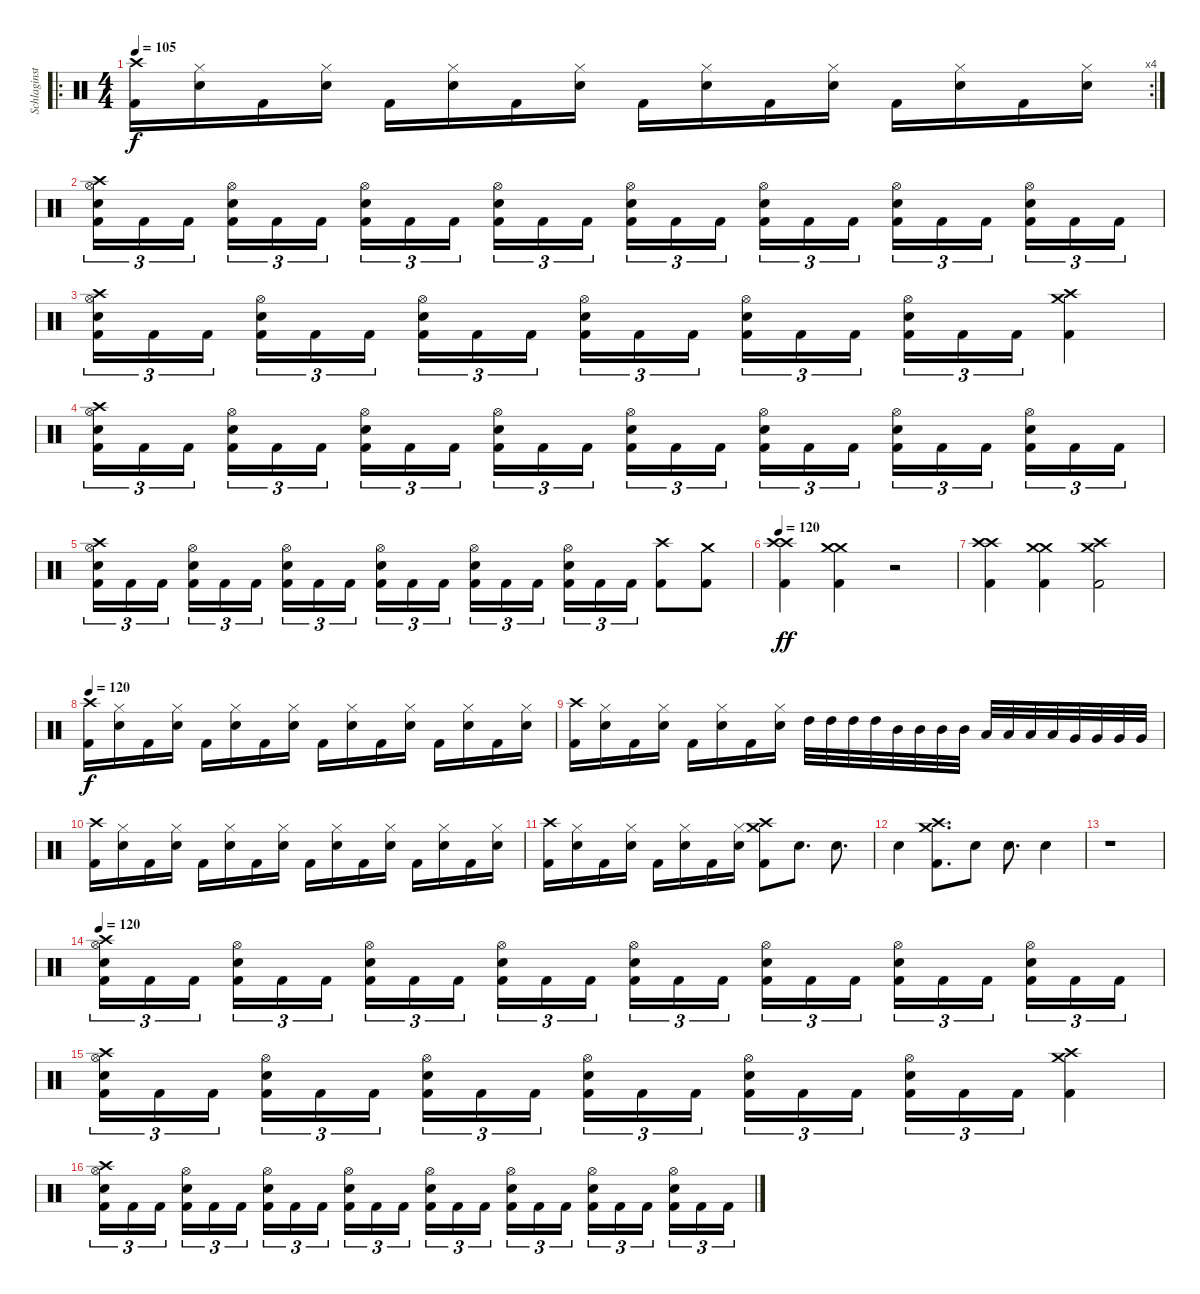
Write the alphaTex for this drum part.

\track ("Schlaginstrumente - Auswahl" "Schlaginst") {instrument percussion}
\staff {score}
\articulation defaults
\ro
\rc 4
\ts (4 4)
\tempo 105
\clef neutral
\ks c
("Crash high (hit)" "Kick (hit) 2").16{dy f} ("Hi-Hat (closed)" "Snare (hit) 2").16 "Kick (hit) 2".16 ("Hi-Hat (closed)" "Snare (hit) 2").16 "Kick (hit) 2".16 ("Hi-Hat (closed)" "Snare (hit) 2").16 "Kick (hit) 2".16 ("Hi-Hat (closed)" "Snare (hit) 2").16 "Kick (hit) 2".16 ("Hi-Hat (closed)" "Snare (hit) 2").16 "Kick (hit) 2".16 ("Hi-Hat (closed)" "Snare (hit) 2").16 "Kick (hit) 2".16 ("Hi-Hat (closed)" "Snare (hit) 2").16 "Kick (hit) 2".16 ("Hi-Hat (closed)" "Snare (hit) 2").16 |
("Crash high (hit)" "Hi-Hat (open)" "Snare (hit) 2" "Kick (hit) 2").16{tu (3 2)} "Kick (hit) 2".16{tu (3 2)} "Kick (hit) 2".16{tu (3 2) beam splitsecondary} ("Hi-Hat (open)" "Snare (hit) 2" "Kick (hit) 2").16{tu (3 2)} "Kick (hit) 2".16{tu (3 2)} "Kick (hit) 2".16{tu (3 2)} ("Hi-Hat (open)" "Snare (hit) 2" "Kick (hit) 2").16{tu (3 2)} "Kick (hit) 2".16{tu (3 2)} "Kick (hit) 2".16{tu (3 2) beam splitsecondary} ("Hi-Hat (open)" "Snare (hit) 2" "Kick (hit) 2").16{tu (3 2)} "Kick (hit) 2".16{tu (3 2)} "Kick (hit) 2".16{tu (3 2)} ("Hi-Hat (open)" "Snare (hit) 2" "Kick (hit) 2").16{tu (3 2)} "Kick (hit) 2".16{tu (3 2)} "Kick (hit) 2".16{tu (3 2) beam splitsecondary} ("Hi-Hat (open)" "Snare (hit) 2" "Kick (hit) 2").16{tu (3 2)} "Kick (hit) 2".16{tu (3 2)} "Kick (hit) 2".16{tu (3 2)} ("Hi-Hat (open)" "Snare (hit) 2" "Kick (hit) 2").16{tu (3 2)} "Kick (hit) 2".16{tu (3 2)} "Kick (hit) 2".16{tu (3 2) beam splitsecondary} ("Hi-Hat (open)" "Snare (hit) 2" "Kick (hit) 2").16{tu (3 2)} "Kick (hit) 2".16{tu (3 2)} "Kick (hit) 2".16{tu (3 2)} |
("Crash high (hit)" "Hi-Hat (open)" "Snare (hit) 2" "Kick (hit) 2").16{tu (3 2)} "Kick (hit) 2".16{tu (3 2)} "Kick (hit) 2".16{tu (3 2) beam splitsecondary} ("Hi-Hat (open)" "Snare (hit) 2" "Kick (hit) 2").16{tu (3 2)} "Kick (hit) 2".16{tu (3 2)} "Kick (hit) 2".16{tu (3 2)} ("Hi-Hat (open)" "Snare (hit) 2" "Kick (hit) 2").16{tu (3 2)} "Kick (hit) 2".16{tu (3 2)} "Kick (hit) 2".16{tu (3 2) beam splitsecondary} ("Hi-Hat (open)" "Snare (hit) 2" "Kick (hit) 2").16{tu (3 2)} "Kick (hit) 2".16{tu (3 2)} "Kick (hit) 2".16{tu (3 2)} ("Hi-Hat (open)" "Snare (hit) 2" "Kick (hit) 2").16{tu (3 2)} "Kick (hit) 2".16{tu (3 2)} "Kick (hit) 2".16{tu (3 2) beam splitsecondary} ("Hi-Hat (open)" "Snare (hit) 2" "Kick (hit) 2").16{tu (3 2)} "Kick (hit) 2".16{tu (3 2)} "Kick (hit) 2".16{tu (3 2)} ("Crash medium (hit)" "Crash high (hit)" "Kick (hit) 2").4 |
("Crash high (hit)" "Hi-Hat (open)" "Snare (hit) 2" "Kick (hit) 2").16{tu (3 2)} "Kick (hit) 2".16{tu (3 2)} "Kick (hit) 2".16{tu (3 2) beam splitsecondary} ("Hi-Hat (open)" "Snare (hit) 2" "Kick (hit) 2").16{tu (3 2)} "Kick (hit) 2".16{tu (3 2)} "Kick (hit) 2".16{tu (3 2)} ("Hi-Hat (open)" "Snare (hit) 2" "Kick (hit) 2").16{tu (3 2)} "Kick (hit) 2".16{tu (3 2)} "Kick (hit) 2".16{tu (3 2) beam splitsecondary} ("Hi-Hat (open)" "Snare (hit) 2" "Kick (hit) 2").16{tu (3 2)} "Kick (hit) 2".16{tu (3 2)} "Kick (hit) 2".16{tu (3 2)} ("Hi-Hat (open)" "Snare (hit) 2" "Kick (hit) 2").16{tu (3 2)} "Kick (hit) 2".16{tu (3 2)} "Kick (hit) 2".16{tu (3 2) beam splitsecondary} ("Hi-Hat (open)" "Snare (hit) 2" "Kick (hit) 2").16{tu (3 2)} "Kick (hit) 2".16{tu (3 2)} "Kick (hit) 2".16{tu (3 2)} ("Hi-Hat (open)" "Snare (hit) 2" "Kick (hit) 2").16{tu (3 2)} "Kick (hit) 2".16{tu (3 2)} "Kick (hit) 2".16{tu (3 2) beam splitsecondary} ("Hi-Hat (open)" "Snare (hit) 2" "Kick (hit) 2").16{tu (3 2)} "Kick (hit) 2".16{tu (3 2)} "Kick (hit) 2".16{tu (3 2)} |
("Crash high (hit)" "Hi-Hat (open)" "Snare (hit) 2" "Kick (hit) 2").16{tu (3 2)} "Kick (hit) 2".16{tu (3 2)} "Kick (hit) 2".16{tu (3 2) beam splitsecondary} ("Hi-Hat (open)" "Snare (hit) 2" "Kick (hit) 2").16{tu (3 2)} "Kick (hit) 2".16{tu (3 2)} "Kick (hit) 2".16{tu (3 2)} ("Hi-Hat (open)" "Snare (hit) 2" "Kick (hit) 2").16{tu (3 2)} "Kick (hit) 2".16{tu (3 2)} "Kick (hit) 2".16{tu (3 2) beam splitsecondary} ("Hi-Hat (open)" "Snare (hit) 2" "Kick (hit) 2").16{tu (3 2)} "Kick (hit) 2".16{tu (3 2)} "Kick (hit) 2".16{tu (3 2)} ("Hi-Hat (open)" "Snare (hit) 2" "Kick (hit) 2").16{tu (3 2)} "Kick (hit) 2".16{tu (3 2)} "Kick (hit) 2".16{tu (3 2) beam splitsecondary} ("Hi-Hat (open)" "Snare (hit) 2" "Kick (hit) 2").16{tu (3 2)} "Kick (hit) 2".16{tu (3 2)} "Kick (hit) 2".16{tu (3 2)} ("Crash high (hit)" "Kick (hit) 2").8 ("Crash medium (hit)" "Kick (hit) 2").8 |
\tempo 120
("Crash high (hit)" "Crash high (hit)" "Kick (hit) 2").4{dy ff} ("Crash medium (hit)" "Crash medium (hit)" "Kick (hit) 2").4 r.2 |
("Crash high (hit)" "Crash high (hit)" "Kick (hit) 2").4 ("Crash medium (hit)" "Crash medium (hit)" "Kick (hit) 2").4 ("Crash medium (hit)" "Crash high (hit)" "Kick (hit) 2").2 |
\tempo 120
("Crash high (hit)" "Kick (hit) 2").16{dy f} ("Hi-Hat (closed)" "Snare (hit) 2").16 "Kick (hit) 2".16 ("Hi-Hat (closed)" "Snare (hit) 2").16 "Kick (hit) 2".16 ("Hi-Hat (closed)" "Snare (hit) 2").16 "Kick (hit) 2".16 ("Hi-Hat (closed)" "Snare (hit) 2").16 "Kick (hit) 2".16 ("Hi-Hat (closed)" "Snare (hit) 2").16 "Kick (hit) 2".16 ("Hi-Hat (closed)" "Snare (hit) 2").16 "Kick (hit) 2".16 ("Hi-Hat (closed)" "Snare (hit) 2").16 "Kick (hit) 2".16 ("Hi-Hat (closed)" "Snare (hit) 2").16 |
("Crash high (hit)" "Kick (hit) 2").16 ("Hi-Hat (closed)" "Snare (hit) 2").16 "Kick (hit) 2".16 ("Hi-Hat (closed)" "Snare (hit) 2").16 "Kick (hit) 2".16 ("Hi-Hat (closed)" "Snare (hit) 2").16 "Kick (hit) 2".16 ("Hi-Hat (closed)" "Snare (hit) 2").16 "High Tom (hit)".32 "High Tom (hit)".32 "High Tom (hit)".32 "High Tom (hit)".32 "Mid Tom (hit)".32 "Mid Tom (hit)".32 "Mid Tom (hit)".32 "Mid Tom (hit)".32 "Low Tom (hit)".32 "Low Tom (hit)".32 "Low Tom (hit)".32 "Low Tom (hit)".32 "Very Low Tom (hit)".32 "Very Low Tom (hit)".32 "Very Low Tom (hit)".32 "Very Low Tom (hit)".32 |
("Crash high (hit)" "Kick (hit) 2").16 ("Hi-Hat (closed)" "Snare (hit) 2").16 "Kick (hit) 2".16 ("Hi-Hat (closed)" "Snare (hit) 2").16 "Kick (hit) 2".16 ("Hi-Hat (closed)" "Snare (hit) 2").16 "Kick (hit) 2".16 ("Hi-Hat (closed)" "Snare (hit) 2").16 "Kick (hit) 2".16 ("Hi-Hat (closed)" "Snare (hit) 2").16 "Kick (hit) 2".16 ("Hi-Hat (closed)" "Snare (hit) 2").16 "Kick (hit) 2".16 ("Hi-Hat (closed)" "Snare (hit) 2").16 "Kick (hit) 2".16 ("Hi-Hat (closed)" "Snare (hit) 2").16 |
("Crash high (hit)" "Kick (hit) 2").16 ("Hi-Hat (closed)" "Snare (hit) 2").16 "Kick (hit) 2".16 ("Hi-Hat (closed)" "Snare (hit) 2").16 "Kick (hit) 2".16 ("Hi-Hat (closed)" "Snare (hit) 2").16 "Kick (hit) 2".16 ("Hi-Hat (closed)" "Snare (hit) 2").16 ("Crash medium (hit)" "Crash high (hit)" "Kick (hit) 2").8 "Snare (hit) 2".8{d} "Snare (hit) 2".8{d} |
"Snare (hit) 2".4 ("Crash medium (hit)" "Crash high (hit)" "Kick (hit) 2").8{d} "Snare (hit) 2".8 "Snare (hit) 2".8{d} "Snare (hit) 2".4 |
r.1 |
\tempo 120
("Crash high (hit)" "Hi-Hat (open)" "Snare (hit) 2" "Kick (hit) 2").16{tu (3 2)} "Kick (hit) 2".16{tu (3 2)} "Kick (hit) 2".16{tu (3 2) beam splitsecondary} ("Hi-Hat (open)" "Snare (hit) 2" "Kick (hit) 2").16{tu (3 2)} "Kick (hit) 2".16{tu (3 2)} "Kick (hit) 2".16{tu (3 2)} ("Hi-Hat (open)" "Snare (hit) 2" "Kick (hit) 2").16{tu (3 2)} "Kick (hit) 2".16{tu (3 2)} "Kick (hit) 2".16{tu (3 2) beam splitsecondary} ("Hi-Hat (open)" "Snare (hit) 2" "Kick (hit) 2").16{tu (3 2)} "Kick (hit) 2".16{tu (3 2)} "Kick (hit) 2".16{tu (3 2)} ("Hi-Hat (open)" "Snare (hit) 2" "Kick (hit) 2").16{tu (3 2)} "Kick (hit) 2".16{tu (3 2)} "Kick (hit) 2".16{tu (3 2) beam splitsecondary} ("Hi-Hat (open)" "Snare (hit) 2" "Kick (hit) 2").16{tu (3 2)} "Kick (hit) 2".16{tu (3 2)} "Kick (hit) 2".16{tu (3 2)} ("Hi-Hat (open)" "Snare (hit) 2" "Kick (hit) 2").16{tu (3 2)} "Kick (hit) 2".16{tu (3 2)} "Kick (hit) 2".16{tu (3 2) beam splitsecondary} ("Hi-Hat (open)" "Snare (hit) 2" "Kick (hit) 2").16{tu (3 2)} "Kick (hit) 2".16{tu (3 2)} "Kick (hit) 2".16{tu (3 2)} |
("Crash high (hit)" "Hi-Hat (open)" "Snare (hit) 2" "Kick (hit) 2").16{tu (3 2)} "Kick (hit) 2".16{tu (3 2)} "Kick (hit) 2".16{tu (3 2) beam splitsecondary} ("Hi-Hat (open)" "Snare (hit) 2" "Kick (hit) 2").16{tu (3 2)} "Kick (hit) 2".16{tu (3 2)} "Kick (hit) 2".16{tu (3 2)} ("Hi-Hat (open)" "Snare (hit) 2" "Kick (hit) 2").16{tu (3 2)} "Kick (hit) 2".16{tu (3 2)} "Kick (hit) 2".16{tu (3 2) beam splitsecondary} ("Hi-Hat (open)" "Snare (hit) 2" "Kick (hit) 2").16{tu (3 2)} "Kick (hit) 2".16{tu (3 2)} "Kick (hit) 2".16{tu (3 2)} ("Hi-Hat (open)" "Snare (hit) 2" "Kick (hit) 2").16{tu (3 2)} "Kick (hit) 2".16{tu (3 2)} "Kick (hit) 2".16{tu (3 2) beam splitsecondary} ("Hi-Hat (open)" "Snare (hit) 2" "Kick (hit) 2").16{tu (3 2)} "Kick (hit) 2".16{tu (3 2)} "Kick (hit) 2".16{tu (3 2)} ("Crash medium (hit)" "Crash high (hit)" "Kick (hit) 2").4 |
("Crash high (hit)" "Hi-Hat (open)" "Snare (hit) 2" "Kick (hit) 2").16{tu (3 2)} "Kick (hit) 2".16{tu (3 2)} "Kick (hit) 2".16{tu (3 2) beam splitsecondary} ("Hi-Hat (open)" "Snare (hit) 2" "Kick (hit) 2").16{tu (3 2)} "Kick (hit) 2".16{tu (3 2)} "Kick (hit) 2".16{tu (3 2)} ("Hi-Hat (open)" "Snare (hit) 2" "Kick (hit) 2").16{tu (3 2)} "Kick (hit) 2".16{tu (3 2)} "Kick (hit) 2".16{tu (3 2) beam splitsecondary} ("Hi-Hat (open)" "Snare (hit) 2" "Kick (hit) 2").16{tu (3 2)} "Kick (hit) 2".16{tu (3 2)} "Kick (hit) 2".16{tu (3 2)} ("Hi-Hat (open)" "Snare (hit) 2" "Kick (hit) 2").16{tu (3 2)} "Kick (hit) 2".16{tu (3 2)} "Kick (hit) 2".16{tu (3 2) beam splitsecondary} ("Hi-Hat (open)" "Snare (hit) 2" "Kick (hit) 2").16{tu (3 2)} "Kick (hit) 2".16{tu (3 2)} "Kick (hit) 2".16{tu (3 2)} ("Hi-Hat (open)" "Snare (hit) 2" "Kick (hit) 2").16{tu (3 2)} "Kick (hit) 2".16{tu (3 2)} "Kick (hit) 2".16{tu (3 2) beam splitsecondary} ("Hi-Hat (open)" "Snare (hit) 2" "Kick (hit) 2").16{tu (3 2)} "Kick (hit) 2".16{tu (3 2)} "Kick (hit) 2".16{tu (3 2)}
